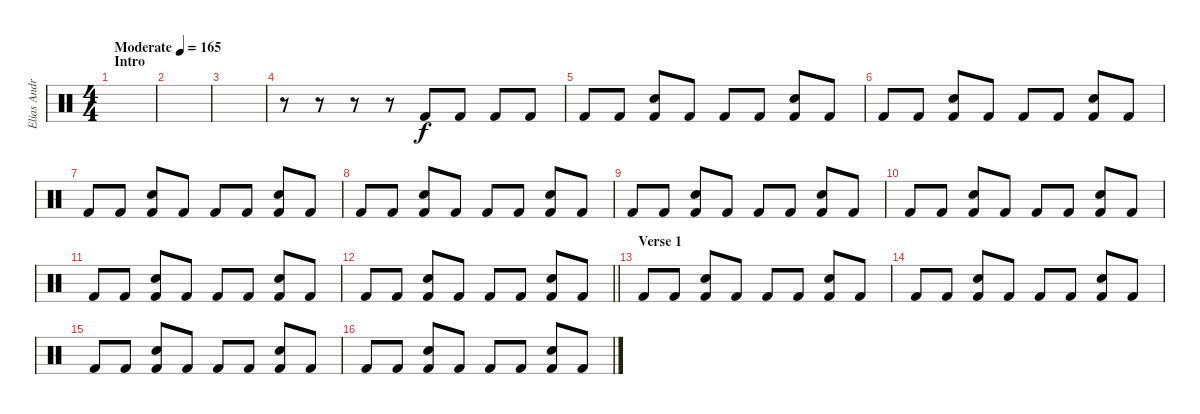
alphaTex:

\track ("Elias Andra-Drums" "Elias Andr") {instrument percussion}
\staff {score}
\articulation defaults
\ts (4 4)
\section ("" "Intro")
\tempo (165 "Moderate")
\clef neutral
\ks c
|
|
|
r.8 r.8 r.8 r.8 "Kick (hit) 2".8 "Kick (hit) 2".8 "Kick (hit) 2".8 "Kick (hit) 2".8 |
"Kick (hit) 2".8 "Kick (hit) 2".8 ("Kick (hit) 2" "Electric Snare (hit)").8 "Kick (hit) 2".8 "Kick (hit) 2".8 "Kick (hit) 2".8 ("Kick (hit) 2" "Electric Snare (hit)").8 "Kick (hit) 2".8 |
"Kick (hit) 2".8 "Kick (hit) 2".8 ("Kick (hit) 2" "Electric Snare (hit)").8 "Kick (hit) 2".8 "Kick (hit) 2".8 "Kick (hit) 2".8 ("Kick (hit) 2" "Electric Snare (hit)").8 "Kick (hit) 2".8 |
"Kick (hit) 2".8 "Kick (hit) 2".8 ("Kick (hit) 2" "Electric Snare (hit)").8 "Kick (hit) 2".8 "Kick (hit) 2".8 "Kick (hit) 2".8 ("Kick (hit) 2" "Electric Snare (hit)").8 "Kick (hit) 2".8 |
"Kick (hit) 2".8 "Kick (hit) 2".8 ("Kick (hit) 2" "Electric Snare (hit)").8 "Kick (hit) 2".8 "Kick (hit) 2".8 "Kick (hit) 2".8 ("Kick (hit) 2" "Electric Snare (hit)").8 "Kick (hit) 2".8 |
"Kick (hit) 2".8 "Kick (hit) 2".8 ("Kick (hit) 2" "Electric Snare (hit)").8 "Kick (hit) 2".8 "Kick (hit) 2".8 "Kick (hit) 2".8 ("Kick (hit) 2" "Electric Snare (hit)").8 "Kick (hit) 2".8 |
"Kick (hit) 2".8 "Kick (hit) 2".8 ("Kick (hit) 2" "Electric Snare (hit)").8 "Kick (hit) 2".8 "Kick (hit) 2".8 "Kick (hit) 2".8 ("Kick (hit) 2" "Electric Snare (hit)").8 "Kick (hit) 2".8 |
"Kick (hit) 2".8 "Kick (hit) 2".8 ("Kick (hit) 2" "Electric Snare (hit)").8 "Kick (hit) 2".8 "Kick (hit) 2".8 "Kick (hit) 2".8 ("Kick (hit) 2" "Electric Snare (hit)").8 "Kick (hit) 2".8 |
\barLineRight lightlight "Kick (hit) 2".8 "Kick (hit) 2".8
("Kick (hit) 2" "Electric Snare (hit)").8 "Kick (hit) 2".8 "Kick (hit) 2".8 "Kick (hit) 2".8 ("Kick (hit) 2" "Electric Snare (hit)").8 "Kick (hit) 2".8 |
\section ("" "Verse 1")
"Kick (hit) 2".8 "Kick (hit) 2".8 ("Kick (hit) 2" "Electric Snare (hit)").8 "Kick (hit) 2".8 "Kick (hit) 2".8 "Kick (hit) 2".8 ("Kick (hit) 2" "Electric Snare (hit)").8 "Kick (hit) 2".8 |
"Kick (hit) 2".8 "Kick (hit) 2".8 ("Kick (hit) 2" "Electric Snare (hit)").8 "Kick (hit) 2".8 "Kick (hit) 2".8 "Kick (hit) 2".8 ("Kick (hit) 2" "Electric Snare (hit)").8 "Kick (hit) 2".8 |
"Kick (hit) 2".8 "Kick (hit) 2".8 ("Kick (hit) 2" "Electric Snare (hit)").8 "Kick (hit) 2".8 "Kick (hit) 2".8 "Kick (hit) 2".8 ("Kick (hit) 2" "Electric Snare (hit)").8 "Kick (hit) 2".8 |
"Kick (hit) 2".8 "Kick (hit) 2".8 ("Kick (hit) 2" "Electric Snare (hit)").8 "Kick (hit) 2".8 "Kick (hit) 2".8 "Kick (hit) 2".8 ("Kick (hit) 2" "Electric Snare (hit)").8 "Kick (hit) 2".8
